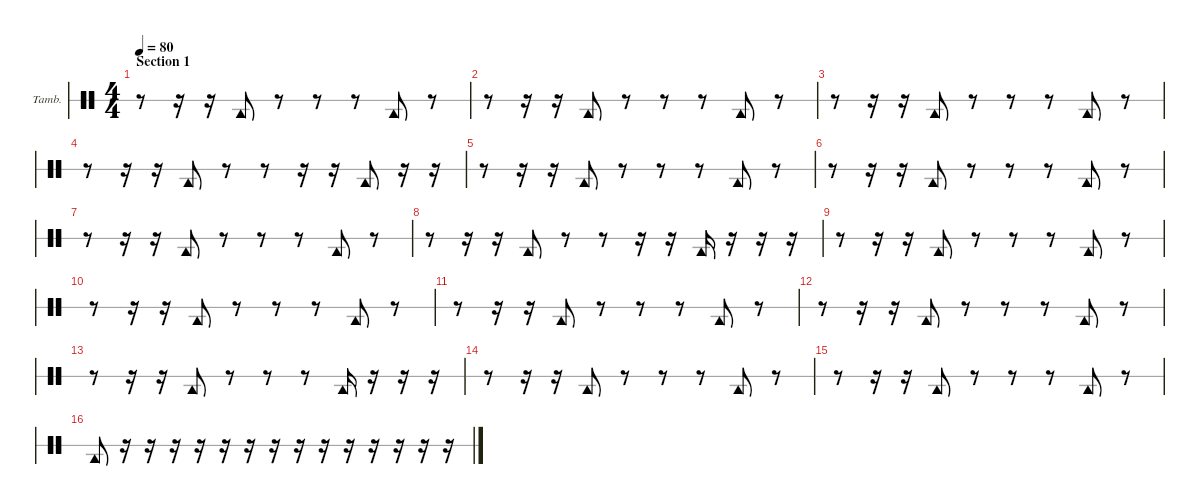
\hideDynamics
\bracketExtendMode nobrackets
\firstSystemTrackNameOrientation horizontal
\otherSystemsTrackNameOrientation horizontal
\track ("Tambourine" "Tamb.") {instrument percussion}
\staff {score 1}
\articulation defaults
\ts (4 4)
\section ("" "Section 1")
\tempo 80
\clef neutral
\ks c
r.8{dy f} r.16 r.16 "Tambourine (hit)".8 r.8 r.8 r.8 "Tambourine (hit)".8 r.8 |
r.8 r.16 r.16 "Tambourine (hit)".8 r.8 r.8 r.8 "Tambourine (hit)".8{dy ff} r.8 |
r.8 r.16 r.16 "Tambourine (hit)".8{dy f} r.8 r.8 r.8 "Tambourine (hit)".8 r.8 |
r.8 r.16 r.16 "Tambourine (hit)".8 r.8 r.8 r.16 r.16 "Tambourine (hit)".8{dy fff} r.16 r.16 |
r.8 r.16 r.16 "Tambourine (hit)".8{dy f} r.8 r.8 r.8 "Tambourine (hit)".8 r.8 |
r.8 r.16 r.16 "Tambourine (hit)".8 r.8 r.8 r.8 "Tambourine (hit)".8 r.8 |
r.8 r.16 r.16 "Tambourine (hit)".8 r.8 r.8 r.8 "Tambourine (hit)".8 r.8 |
r.8 r.16 r.16 "Tambourine (hit)".8 r.8 r.8 r.16 r.16 "Tambourine (hit)".16 r.16 r.16 r.16 |
r.8 r.16 r.16 "Tambourine (hit)".8 r.8 r.8 r.8 "Tambourine (hit)".8 r.8 |
r.8 r.16 r.16 "Tambourine (hit)".8 r.8 r.8 r.8 "Tambourine (hit)".8 r.8 |
r.8 r.16 r.16 "Tambourine (hit)".8 r.8 r.8 r.8 "Tambourine (hit)".8 r.8 |
r.8 r.16 r.16 "Tambourine (hit)".8 r.8 r.8 r.8 "Tambourine (hit)".8 r.8 |
r.8 r.16 r.16 "Tambourine (hit)".8 r.8 r.8 r.8 "Tambourine (hit)".16 r.16 r.16 r.16 |
r.8 r.16 r.16 "Tambourine (hit)".8 r.8 r.8 r.8 "Tambourine (hit)".8 r.8 |
r.8 r.16 r.16 "Tambourine (hit)".8 r.8 r.8 r.8 "Tambourine (hit)".8 r.8 |
"Tambourine (hit)".8 r.16 r.16 r.16 r.16 r.16 r.16 r.16 r.16 r.16 r.16 r.16 r.16 r.16 r.16
